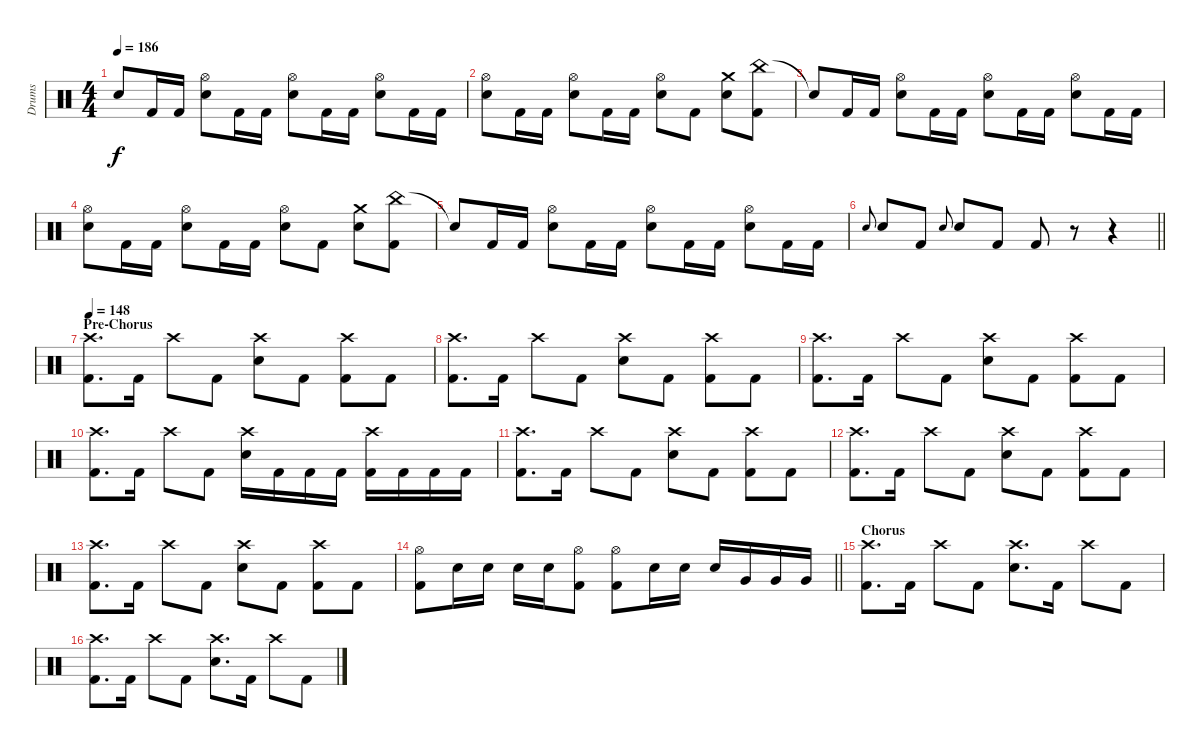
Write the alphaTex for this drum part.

\track ("Drums" "Drums") {instrument percussion}
\staff {score}
\articulation defaults
\ts (4 4)
\tempo 186
\clef neutral
\ks c "Snare (hit)"{t}.8{dy f} "Kick (hit) 2".16 "Kick (hit) 2".16
("Hi-Hat (open)" "Snare (hit) 2").8 "Kick (hit) 2".16 "Kick (hit) 2".16 ("Hi-Hat (open)" "Snare (hit) 2").8 "Kick (hit) 2".16 "Kick (hit) 2".16 ("Hi-Hat (open)" "Snare (hit) 2").8 "Kick (hit) 2".16 "Kick (hit) 2".16 |
("Hi-Hat (open)" "Snare (hit) 2").8 "Kick (hit) 2".16 "Kick (hit) 2".16 ("Hi-Hat (open)" "Snare (hit) 2").8 "Kick (hit) 2".16 "Kick (hit) 2".16 ("Hi-Hat (open)" "Snare (hit) 2").8 "Kick (hit) 2".8 ("Crash medium (hit)" "Snare (hit) 2").8 ("China (hit)" "Kick (hit) 2").8 |
"Snare (hit)"{t}.8 "Kick (hit) 2".16 "Kick (hit) 2".16 ("Hi-Hat (open)" "Snare (hit) 2").8 "Kick (hit) 2".16 "Kick (hit) 2".16 ("Hi-Hat (open)" "Snare (hit) 2").8 "Kick (hit) 2".16 "Kick (hit) 2".16 ("Hi-Hat (open)" "Snare (hit) 2").8 "Kick (hit) 2".16 "Kick (hit) 2".16 |
("Hi-Hat (open)" "Snare (hit) 2").8 "Kick (hit) 2".16 "Kick (hit) 2".16 ("Hi-Hat (open)" "Snare (hit) 2").8 "Kick (hit) 2".16 "Kick (hit) 2".16 ("Hi-Hat (open)" "Snare (hit) 2").8 "Kick (hit) 2".8 ("Crash medium (hit)" "Snare (hit) 2").8 ("China (hit)" "Kick (hit) 2").8 |
"Snare (hit)"{t}.8 "Kick (hit) 2".16 "Kick (hit) 2".16 ("Hi-Hat (open)" "Snare (hit) 2").8 "Kick (hit) 2".16 "Kick (hit) 2".16 ("Hi-Hat (open)" "Snare (hit) 2").8 "Kick (hit) 2".16 "Kick (hit) 2".16 ("Hi-Hat (open)" "Snare (hit) 2").8 "Kick (hit) 2".16 "Kick (hit) 2".16 |
\barLineRight lightlight "Snare (hit) 2".8{gr onbeat} "Snare (hit) 2".8 "Kick (hit) 2".8 "Snare (hit) 2".8{gr onbeat} "Snare (hit) 2".8 "Kick (hit) 2".8 "Kick (hit) 2".8
r.8 r.4 |
\section ("" "Pre-Chorus")
\tempo 148
("Crash high (hit)" "Kick (hit) 2").8{d} "Kick (hit) 2".16 "Crash high (hit)".8 "Kick (hit) 2".8 ("Crash high (hit)" "Snare (hit) 2").8 "Kick (hit) 2".8 ("Crash high (hit)" "Kick (hit) 2").8 "Kick (hit) 2".8 |
("Crash high (hit)" "Kick (hit) 2").8{d} "Kick (hit) 2".16 "Crash high (hit)".8 "Kick (hit) 2".8 ("Crash high (hit)" "Snare (hit) 2").8 "Kick (hit) 2".8 ("Crash high (hit)" "Kick (hit) 2").8 "Kick (hit) 2".8 |
("Crash high (hit)" "Kick (hit) 2").8{d} "Kick (hit) 2".16 "Crash high (hit)".8 "Kick (hit) 2".8 ("Crash high (hit)" "Snare (hit) 2").8 "Kick (hit) 2".8 ("Crash high (hit)" "Kick (hit) 2").8 "Kick (hit) 2".8 |
("Crash high (hit)" "Kick (hit) 2").8{d} "Kick (hit) 2".16 "Crash high (hit)".8 "Kick (hit) 2".8 ("Crash high (hit)" "Snare (hit) 2").16 "Kick (hit) 2".16 "Kick (hit) 2".16 "Kick (hit) 2".16 ("Crash high (hit)" "Kick (hit) 2").16 "Kick (hit) 2".16 "Kick (hit) 2".16 "Kick (hit) 2".16 |
("Crash high (hit)" "Kick (hit) 2").8{d} "Kick (hit) 2".16 "Crash high (hit)".8 "Kick (hit) 2".8 ("Crash high (hit)" "Snare (hit) 2").8 "Kick (hit) 2".8 ("Crash high (hit)" "Kick (hit) 2").8 "Kick (hit) 2".8 |
("Crash high (hit)" "Kick (hit) 2").8{d} "Kick (hit) 2".16 "Crash high (hit)".8 "Kick (hit) 2".8 ("Crash high (hit)" "Snare (hit) 2").8 "Kick (hit) 2".8 ("Crash high (hit)" "Kick (hit) 2").8 "Kick (hit) 2".8 |
("Crash high (hit)" "Kick (hit) 2").8{d} "Kick (hit) 2".16 "Crash high (hit)".8 "Kick (hit) 2".8 ("Crash high (hit)" "Snare (hit) 2").8 "Kick (hit) 2".8 ("Crash high (hit)" "Kick (hit) 2").8 "Kick (hit) 2".8 |
\barLineRight lightlight
("Hi-Hat (open)" "Kick (hit) 2").8 "Snare (hit) 2".16 "Snare (hit) 2".16 "Snare (hit) 2".16 "Snare (hit) 2".16 ("Hi-Hat (open)" "Kick (hit) 2").8 ("Hi-Hat (open)" "Kick (hit) 2").8 "Snare (hit) 2".16 "Snare (hit) 2".16 "Snare (hit) 2".16 "Very Low Tom (hit)".16 "Very Low Tom (hit)".16 "Very Low Tom (hit)".16 |
\section ("" "Chorus")
("Crash high (hit)" "Kick (hit) 2").8{d} "Kick (hit) 2".16 "Crash high (hit)".8 "Kick (hit) 2".8 ("Crash high (hit)" "Snare (hit) 2").8{d} "Kick (hit) 2".16 "Crash high (hit)".8 "Kick (hit) 2".8 |
("Crash high (hit)" "Kick (hit) 2").8{d} "Kick (hit) 2".16 "Crash high (hit)".8 "Kick (hit) 2".8 ("Crash high (hit)" "Snare (hit) 2").8{d} "Kick (hit) 2".16 "Crash high (hit)".8 "Kick (hit) 2".8
